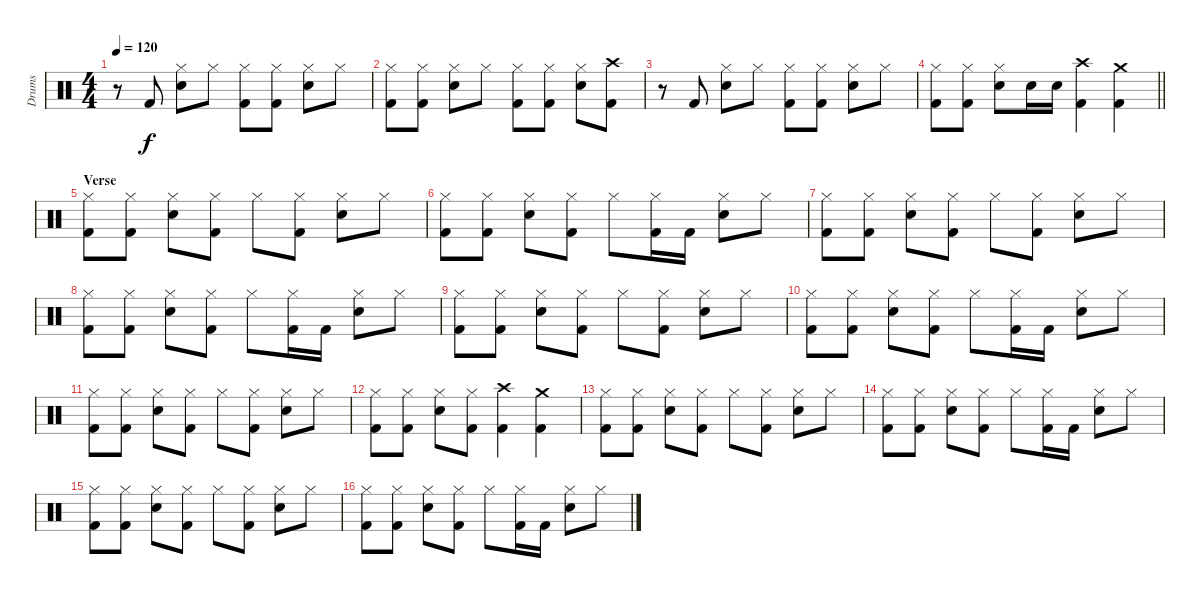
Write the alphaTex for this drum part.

\track ("Drums" "Drums") {instrument percussion}
\staff {score}
\articulation defaults
\ts (4 4)
\tempo 120
\clef neutral
\ks c
r.8{dy f} "Kick (hit) 2".8 ("Hi-Hat (closed)" "Snare (hit) 2").8 "Hi-Hat (closed)".8 ("Hi-Hat (closed)" "Kick (hit) 2").8 ("Hi-Hat (closed)" "Kick (hit) 2").8 ("Hi-Hat (closed)" "Snare (hit) 2").8 "Hi-Hat (closed)".8 |
("Hi-Hat (closed)" "Kick (hit) 2").8 ("Hi-Hat (closed)" "Kick (hit) 2").8 ("Hi-Hat (closed)" "Snare (hit) 2").8 "Hi-Hat (closed)".8 ("Hi-Hat (closed)" "Kick (hit) 2").8 ("Hi-Hat (closed)" "Kick (hit) 2").8 ("Hi-Hat (closed)" "Snare (hit) 2").8 ("Crash high (hit)" "Kick (hit) 2").8 |
r.8 "Kick (hit) 2".8 ("Hi-Hat (closed)" "Snare (hit) 2").8 "Hi-Hat (closed)".8 ("Hi-Hat (closed)" "Kick (hit) 2").8 ("Hi-Hat (closed)" "Kick (hit) 2").8 ("Hi-Hat (closed)" "Snare (hit) 2").8 "Hi-Hat (closed)".8 |
\barLineRight lightlight
("Hi-Hat (closed)" "Kick (hit) 2").8 ("Hi-Hat (closed)" "Kick (hit) 2").8 ("Hi-Hat (closed)" "Snare (hit) 2").8 "Snare (hit) 2".16 "Snare (hit) 2".16 ("Crash high (hit)" "Kick (hit) 2").4 ("Crash medium (hit)" "Kick (hit) 2").4 |
\section ("" "Verse")
("Hi-Hat (closed)" "Kick (hit) 2").8 ("Hi-Hat (closed)" "Kick (hit) 2").8 ("Hi-Hat (closed)" "Snare (hit) 2").8 ("Hi-Hat (closed)" "Kick (hit) 2").8 "Hi-Hat (closed)".8 ("Hi-Hat (closed)" "Kick (hit) 2").8 ("Hi-Hat (closed)" "Snare (hit) 2").8 "Hi-Hat (closed)".8 |
("Hi-Hat (closed)" "Kick (hit) 2").8 ("Hi-Hat (closed)" "Kick (hit) 2").8 ("Hi-Hat (closed)" "Snare (hit) 2").8 ("Hi-Hat (closed)" "Kick (hit) 2").8 "Hi-Hat (closed)".8 ("Hi-Hat (closed)" "Kick (hit) 2").16 "Kick (hit) 2".16 ("Hi-Hat (closed)" "Snare (hit) 2").8 "Hi-Hat (closed)".8 |
("Hi-Hat (closed)" "Kick (hit) 2").8 ("Hi-Hat (closed)" "Kick (hit) 2").8 ("Hi-Hat (closed)" "Snare (hit) 2").8 ("Hi-Hat (closed)" "Kick (hit) 2").8 "Hi-Hat (closed)".8 ("Hi-Hat (closed)" "Kick (hit) 2").8 ("Hi-Hat (closed)" "Snare (hit) 2").8 "Hi-Hat (closed)".8 |
("Hi-Hat (closed)" "Kick (hit) 2").8 ("Hi-Hat (closed)" "Kick (hit) 2").8 ("Hi-Hat (closed)" "Snare (hit) 2").8 ("Hi-Hat (closed)" "Kick (hit) 2").8 "Hi-Hat (closed)".8 ("Hi-Hat (closed)" "Kick (hit) 2").16 "Kick (hit) 2".16 ("Hi-Hat (closed)" "Snare (hit) 2").8 "Hi-Hat (closed)".8 |
("Hi-Hat (closed)" "Kick (hit) 2").8 ("Hi-Hat (closed)" "Kick (hit) 2").8 ("Hi-Hat (closed)" "Snare (hit) 2").8 ("Hi-Hat (closed)" "Kick (hit) 2").8 "Hi-Hat (closed)".8 ("Hi-Hat (closed)" "Kick (hit) 2").8 ("Hi-Hat (closed)" "Snare (hit) 2").8 "Hi-Hat (closed)".8 |
("Hi-Hat (closed)" "Kick (hit) 2").8 ("Hi-Hat (closed)" "Kick (hit) 2").8 ("Hi-Hat (closed)" "Snare (hit) 2").8 ("Hi-Hat (closed)" "Kick (hit) 2").8 "Hi-Hat (closed)".8 ("Hi-Hat (closed)" "Kick (hit) 2").16 "Kick (hit) 2".16 ("Hi-Hat (closed)" "Snare (hit) 2").8 "Hi-Hat (closed)".8 |
("Hi-Hat (closed)" "Kick (hit) 2").8 ("Hi-Hat (closed)" "Kick (hit) 2").8 ("Hi-Hat (closed)" "Snare (hit) 2").8 ("Hi-Hat (closed)" "Kick (hit) 2").8 "Hi-Hat (closed)".8 ("Hi-Hat (closed)" "Kick (hit) 2").8 ("Hi-Hat (closed)" "Snare (hit) 2").8 "Hi-Hat (closed)".8 |
("Hi-Hat (closed)" "Kick (hit) 2").8 ("Hi-Hat (closed)" "Kick (hit) 2").8 ("Hi-Hat (closed)" "Snare (hit) 2").8 ("Hi-Hat (closed)" "Kick (hit) 2").8 ("Crash high (hit)" "Kick (hit) 2").4 ("Crash medium (hit)" "Kick (hit) 2").4 |
("Hi-Hat (closed)" "Kick (hit) 2").8 ("Hi-Hat (closed)" "Kick (hit) 2").8 ("Hi-Hat (closed)" "Snare (hit) 2").8 ("Hi-Hat (closed)" "Kick (hit) 2").8 "Hi-Hat (closed)".8 ("Hi-Hat (closed)" "Kick (hit) 2").8 ("Hi-Hat (closed)" "Snare (hit) 2").8 "Hi-Hat (closed)".8 |
("Hi-Hat (closed)" "Kick (hit) 2").8 ("Hi-Hat (closed)" "Kick (hit) 2").8 ("Hi-Hat (closed)" "Snare (hit) 2").8 ("Hi-Hat (closed)" "Kick (hit) 2").8 "Hi-Hat (closed)".8 ("Hi-Hat (closed)" "Kick (hit) 2").16 "Kick (hit) 2".16 ("Hi-Hat (closed)" "Snare (hit) 2").8 "Hi-Hat (closed)".8 |
("Hi-Hat (closed)" "Kick (hit) 2").8 ("Hi-Hat (closed)" "Kick (hit) 2").8 ("Hi-Hat (closed)" "Snare (hit) 2").8 ("Hi-Hat (closed)" "Kick (hit) 2").8 "Hi-Hat (closed)".8 ("Hi-Hat (closed)" "Kick (hit) 2").8 ("Hi-Hat (closed)" "Snare (hit) 2").8 "Hi-Hat (closed)".8 |
("Hi-Hat (closed)" "Kick (hit) 2").8 ("Hi-Hat (closed)" "Kick (hit) 2").8 ("Hi-Hat (closed)" "Snare (hit) 2").8 ("Hi-Hat (closed)" "Kick (hit) 2").8 "Hi-Hat (closed)".8 ("Hi-Hat (closed)" "Kick (hit) 2").16 "Kick (hit) 2".16 ("Hi-Hat (closed)" "Snare (hit) 2").8 "Hi-Hat (closed)".8
